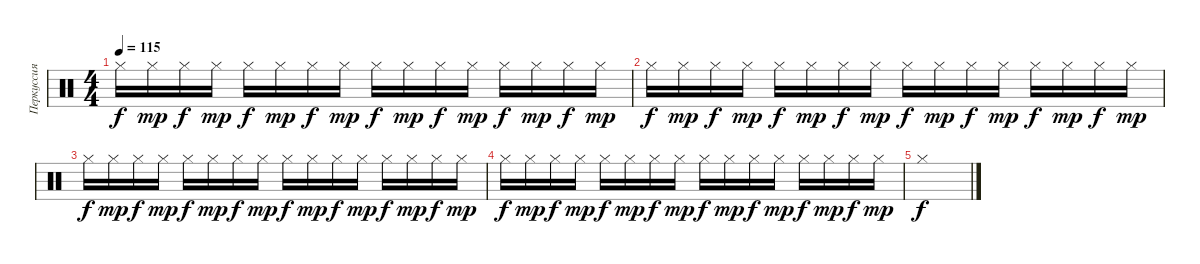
\track ("Перкуссия" "Перкуссия") {instrument percussion}
\staff {score}
\articulation defaults
\ts (4 4)
\tempo 115
\clef neutral
\ks c "Hi-Hat (closed)".16{dy f} "Hi-Hat (closed)".16{dy mp} "Hi-Hat (closed)".16{dy f} "Hi-Hat (closed)".16{dy mp} "Hi-Hat (closed)".16{dy f} "Hi-Hat (closed)".16{dy mp} "Hi-Hat (closed)".16{dy f} "Hi-Hat (closed)".16{dy mp} "Hi-Hat (closed)".16{dy f} "Hi-Hat (closed)".16{dy mp} "Hi-Hat (closed)".16{dy f} "Hi-Hat (closed)".16{dy mp} "Hi-Hat (closed)".16{dy f} "Hi-Hat (closed)".16{dy mp} "Hi-Hat (closed)".16{dy f} "Hi-Hat (closed)".16{dy mp}
|
"Hi-Hat (closed)".16{dy f} "Hi-Hat (closed)".16{dy mp} "Hi-Hat (closed)".16{dy f} "Hi-Hat (closed)".16{dy mp} "Hi-Hat (closed)".16{dy f} "Hi-Hat (closed)".16{dy mp} "Hi-Hat (closed)".16{dy f} "Hi-Hat (closed)".16{dy mp} "Hi-Hat (closed)".16{dy f} "Hi-Hat (closed)".16{dy mp} "Hi-Hat (closed)".16{dy f} "Hi-Hat (closed)".16{dy mp} "Hi-Hat (closed)".16{dy f} "Hi-Hat (closed)".16{dy mp} "Hi-Hat (closed)".16{dy f} "Hi-Hat (closed)".16{dy mp} |
"Hi-Hat (closed)".16{dy f} "Hi-Hat (closed)".16{dy mp} "Hi-Hat (closed)".16{dy f} "Hi-Hat (closed)".16{dy mp} "Hi-Hat (closed)".16{dy f} "Hi-Hat (closed)".16{dy mp} "Hi-Hat (closed)".16{dy f} "Hi-Hat (closed)".16{dy mp} "Hi-Hat (closed)".16{dy f} "Hi-Hat (closed)".16{dy mp} "Hi-Hat (closed)".16{dy f} "Hi-Hat (closed)".16{dy mp} "Hi-Hat (closed)".16{dy f} "Hi-Hat (closed)".16{dy mp} "Hi-Hat (closed)".16{dy f} "Hi-Hat (closed)".16{dy mp} |
"Hi-Hat (closed)".16{dy f} "Hi-Hat (closed)".16{dy mp} "Hi-Hat (closed)".16{dy f} "Hi-Hat (closed)".16{dy mp} "Hi-Hat (closed)".16{dy f} "Hi-Hat (closed)".16{dy mp} "Hi-Hat (closed)".16{dy f} "Hi-Hat (closed)".16{dy mp} "Hi-Hat (closed)".16{dy f} "Hi-Hat (closed)".16{dy mp} "Hi-Hat (closed)".16{dy f} "Hi-Hat (closed)".16{dy mp} "Hi-Hat (closed)".16{dy f} "Hi-Hat (closed)".16{dy mp} "Hi-Hat (closed)".16{dy f} "Hi-Hat (closed)".16{dy mp} |
"Hi-Hat (closed)".1{dy f}
